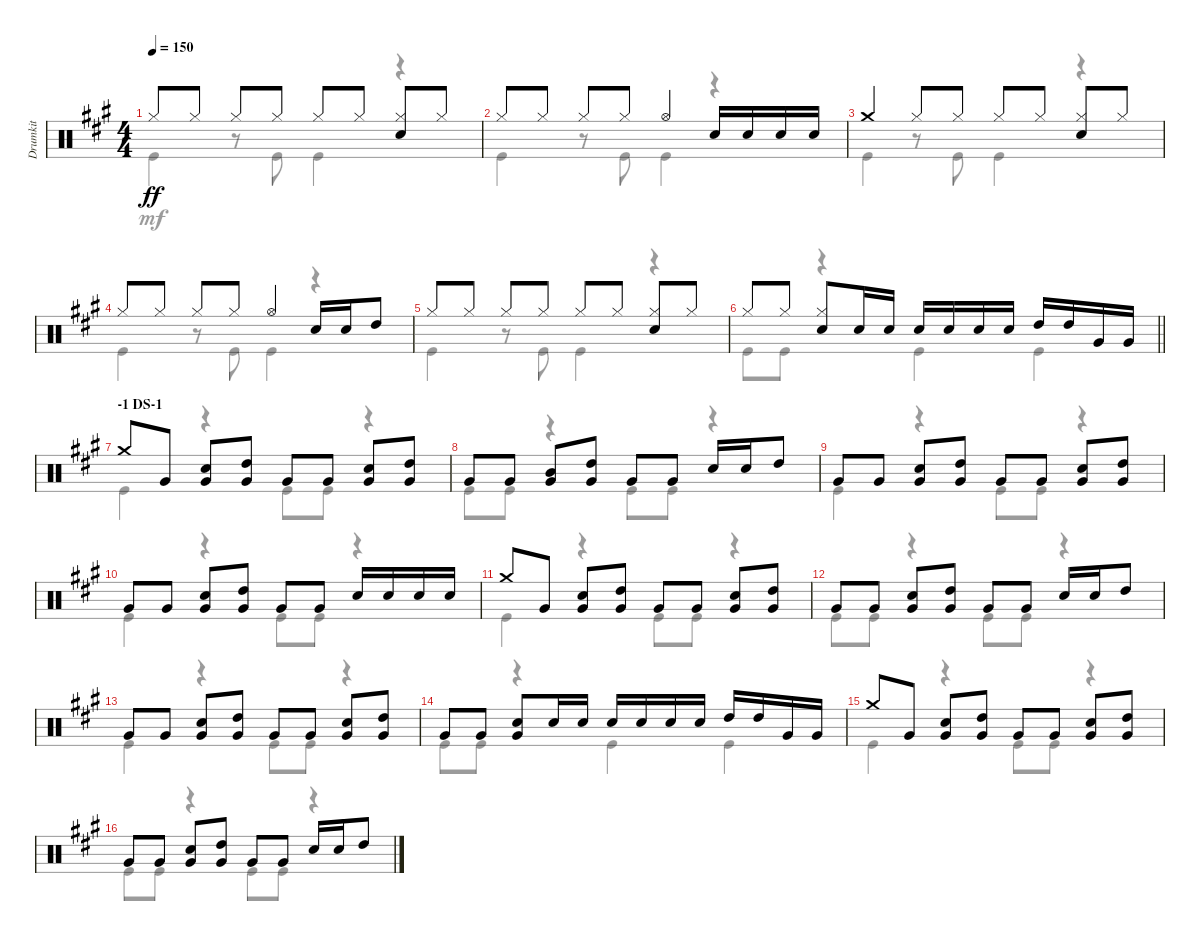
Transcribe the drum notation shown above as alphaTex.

\track ("Drumkit" "Drumkit") {instrument percussion}
\staff {score}
\articulation defaults
\voice
\ts (4 4)
\tempo 150
\clef neutral
\ks a "Hi-Hat (closed)".8{dy ff} "Hi-Hat (closed)".8 "Hi-Hat (closed)".8 "Hi-Hat (closed)".8 "Hi-Hat (closed)".8 "Hi-Hat (closed)".8
("Hi-Hat (closed)" "Snare (hit) 2").8 "Hi-Hat (closed)".8 |
"Hi-Hat (closed)".8 "Hi-Hat (closed)".8 "Hi-Hat (closed)".8 "Hi-Hat (closed)".8 "Hi-Hat (open)".4 "Snare (hit) 2".16 "Snare (hit) 2".16 "Snare (hit) 2".16 "Snare (hit) 2".16 |
"Crash medium (hit)".4 "Hi-Hat (closed)".8 "Hi-Hat (closed)".8 "Hi-Hat (closed)".8 "Hi-Hat (closed)".8 ("Hi-Hat (closed)" "Snare (hit) 2").8 "Hi-Hat (closed)".8 |
"Hi-Hat (closed)".8 "Hi-Hat (closed)".8 "Hi-Hat (closed)".8 "Hi-Hat (closed)".8 "Hi-Hat (open)".4 "Snare (hit) 2".16 "Snare (hit) 2".16 "High Tom (hit)".8 |
"Hi-Hat (closed)".8 "Hi-Hat (closed)".8 "Hi-Hat (closed)".8 "Hi-Hat (closed)".8 "Hi-Hat (closed)".8 "Hi-Hat (closed)".8 ("Hi-Hat (closed)" "Snare (hit) 2").8 "Hi-Hat (closed)".8 |
\barLineRight lightlight "Hi-Hat (closed)".8 "Hi-Hat (closed)".8
("Hi-Hat (closed)" "Snare (hit) 2").8 "Snare (hit) 2".16 "Snare (hit) 2".16 "Snare (hit) 2".16 "Snare (hit) 2".16 "Snare (hit) 2".16 "Snare (hit) 2".16 "High Tom (hit)".16 "High Tom (hit)".16 "Very Low Tom (hit)".16 "Very Low Tom (hit)".16 |
\section ("" "-1 DS-1")
"Crash medium (hit)".8 "Very Low Tom (hit)".8 ("Very Low Tom (hit)" "Snare (hit) 2").8 ("Very Low Tom (hit)" "High Tom (hit)").8 "Very Low Tom (hit)".8 "Very Low Tom (hit)".8 ("Very Low Tom (hit)" "Snare (hit) 2").8 ("Very Low Tom (hit)" "High Tom (hit)").8 |
"Very Low Tom (hit)".8 "Very Low Tom (hit)".8 ("Very Low Tom (hit)" "Mid Tom (hit)").8 ("Very Low Tom (hit)" "High Tom (hit)").8 "Very Low Tom (hit)".8 "Very Low Tom (hit)".8 "Snare (hit) 2".16 "Snare (hit) 2".16 "High Tom (hit)".8 |
"Very Low Tom (hit)".8 "Very Low Tom (hit)".8 ("Very Low Tom (hit)" "Snare (hit) 2").8 ("Very Low Tom (hit)" "High Tom (hit)").8 "Very Low Tom (hit)".8 "Very Low Tom (hit)".8 ("Very Low Tom (hit)" "Snare (hit) 2").8 ("Very Low Tom (hit)" "High Tom (hit)").8 |
"Very Low Tom (hit)".8 "Very Low Tom (hit)".8 ("Very Low Tom (hit)" "Snare (hit) 2").8 ("Very Low Tom (hit)" "High Tom (hit)").8 "Very Low Tom (hit)".8 "Very Low Tom (hit)".8 "Snare (hit) 2".16 "Snare (hit) 2".16 "Snare (hit) 2".16 "Snare (hit) 2".16 |
"Crash medium (hit)".8 "Very Low Tom (hit)".8 ("Very Low Tom (hit)" "Snare (hit) 2").8 ("Very Low Tom (hit)" "High Tom (hit)").8 "Very Low Tom (hit)".8 "Very Low Tom (hit)".8 ("Very Low Tom (hit)" "Snare (hit) 2").8 ("Very Low Tom (hit)" "High Tom (hit)").8 |
"Very Low Tom (hit)".8 "Very Low Tom (hit)".8 ("Very Low Tom (hit)" "Snare (hit) 2").8 ("Very Low Tom (hit)" "High Tom (hit)").8 "Very Low Tom (hit)".8 "Very Low Tom (hit)".8 "Snare (hit) 2".16 "Snare (hit) 2".16 "High Tom (hit)".8 |
"Very Low Tom (hit)".8 "Very Low Tom (hit)".8 ("Very Low Tom (hit)" "Snare (hit) 2").8 ("Very Low Tom (hit)" "High Tom (hit)").8 "Very Low Tom (hit)".8 "Very Low Tom (hit)".8 ("Very Low Tom (hit)" "Snare (hit) 2").8 ("Very Low Tom (hit)" "High Tom (hit)").8 |
"Very Low Tom (hit)".8 "Very Low Tom (hit)".8 ("Very Low Tom (hit)" "Snare (hit) 2").8 "Snare (hit) 2".16 "Snare (hit) 2".16 "Snare (hit) 2".16 "Snare (hit) 2".16 "Snare (hit) 2".16 "Snare (hit) 2".16 "High Tom (hit)".16 "High Tom (hit)".16 "Very Low Tom (hit)".16 "Very Low Tom (hit)".16 |
"Crash medium (hit)".8 "Very Low Tom (hit)".8 ("Very Low Tom (hit)" "Snare (hit) 2").8 ("Very Low Tom (hit)" "High Tom (hit)").8 "Very Low Tom (hit)".8 "Very Low Tom (hit)".8 ("Very Low Tom (hit)" "Snare (hit) 2").8 ("Very Low Tom (hit)" "High Tom (hit)").8 |
"Very Low Tom (hit)".8 "Very Low Tom (hit)".8 ("Very Low Tom (hit)" "Snare (hit) 2").8 ("Very Low Tom (hit)" "High Tom (hit)").8 "Very Low Tom (hit)".8 "Very Low Tom (hit)".8 "Snare (hit) 2".16 "Snare (hit) 2".16 "High Tom (hit)".8
\voice
\clef neutral
\ottava regular
\simile none
\ks a "Kick (hit)".4{dy mf}
r.8 "Kick (hit)".8 "Kick (hit)".4 r.4 |
"Kick (hit)".4 r.8 "Kick (hit)".8 "Kick (hit)".4 r.4 |
"Kick (hit)".4 r.8 "Kick (hit)".8 "Kick (hit)".4 r.4 |
"Kick (hit)".4 r.8 "Kick (hit)".8 "Kick (hit)".4 r.4 |
"Kick (hit)".4 r.8 "Kick (hit)".8 "Kick (hit)".4 r.4 |
\barLineRight lightlight "Kick (hit)".8 "Kick (hit)".8
r.4 "Kick (hit)".4 "Kick (hit)".4 |
"Kick (hit)".4 r.4 "Kick (hit)".8 "Kick (hit)".8 r.4 |
"Kick (hit)".8 "Kick (hit)".8 r.4 "Kick (hit)".8 "Kick (hit)".8 r.4 |
"Kick (hit)".4 r.4 "Kick (hit)".8 "Kick (hit)".8 r.4 |
"Kick (hit)".4 r.4 "Kick (hit)".8 "Kick (hit)".8 r.4 |
"Kick (hit)".4 r.4 "Kick (hit)".8 "Kick (hit)".8 r.4 |
"Kick (hit)".8 "Kick (hit)".8 r.4 "Kick (hit)".8 "Kick (hit)".8 r.4 |
"Kick (hit)".4 r.4 "Kick (hit)".8 "Kick (hit)".8 r.4 |
"Kick (hit)".8 "Kick (hit)".8 r.4 "Kick (hit)".4 "Kick (hit)".4 |
"Kick (hit)".4 r.4 "Kick (hit)".8 "Kick (hit)".8 r.4 |
"Kick (hit)".8 "Kick (hit)".8 r.4 "Kick (hit)".8 "Kick (hit)".8 r.4
